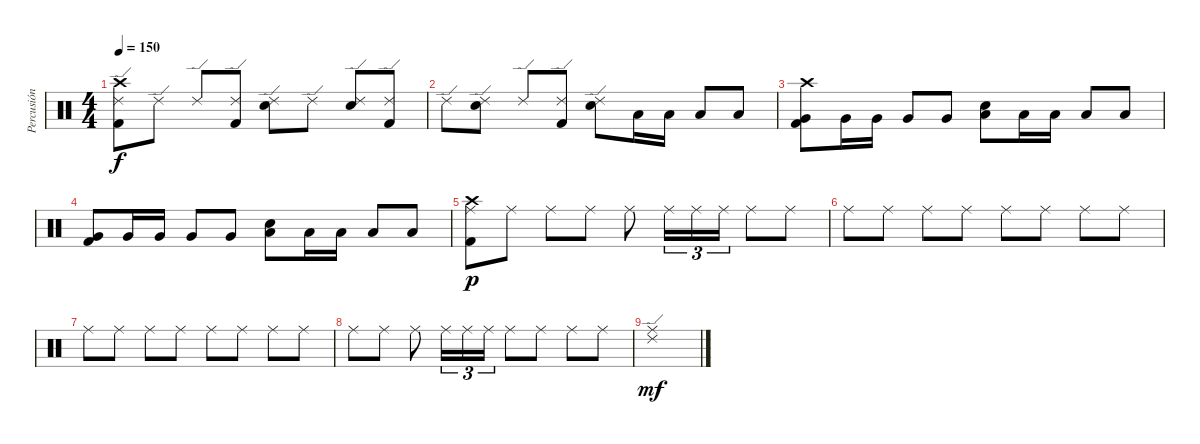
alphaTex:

\track ("Percusión" "Percusión") {instrument percussion}
\staff {score}
\articulation defaults
\ts (4 4)
\tempo 150
\clef neutral
\ks c
("Crash high (hit)" "Ride (edge) 2" "Kick (hit) 2").8{dy f} "Ride (edge) 2".8 "Ride (edge) 2".8 ("Ride (edge) 2" "Kick (hit) 2").8 ("Ride (edge) 2" "Snare (hit) 2").8 "Ride (edge) 2".8 ("Ride (edge) 2" "Snare (hit) 2").8 ("Ride (edge) 2" "Kick (hit) 2").8 |
"Ride (edge) 2".8 ("Ride (edge) 2" "Snare (hit) 2").8 "Ride (edge) 2".8 ("Ride (edge) 2" "Kick (hit) 2").8 ("Ride (edge) 2" "Snare (hit) 2").8 "Low Tom (hit)".16 "Low Tom (hit)".16 "Low Tom (hit)".8 "Low Tom (hit)".8 |
("Crash high (hit)" "Very Low Tom (hit)" "Kick (hit) 2").8 "Very Low Tom (hit)".16 "Very Low Tom (hit)".16 "Very Low Tom (hit)".8 "Very Low Tom (hit)".8 ("Low Floor Tom (hit)" "Snare (hit) 2").8 "Low Floor Tom (hit)".16 "Low Floor Tom (hit)".16 "Low Floor Tom (hit)".8 "Low Floor Tom (hit)".8 |
("Very Low Tom (hit)" "Kick (hit) 2").8 "Very Low Tom (hit)".16 "Very Low Tom (hit)".16 "Very Low Tom (hit)".8 "Very Low Tom (hit)".8 ("Low Floor Tom (hit)" "Snare (hit) 2").8 "Low Floor Tom (hit)".16 "Low Floor Tom (hit)".16 "Low Floor Tom (hit)".8 "Low Floor Tom (hit)".8 |
("Crash high (hit)" "Kick (hit) 2" "Ride (middle)").8{dy p} "Ride (middle)".8 "Ride (middle)".8 "Ride (middle)".8 "Ride (middle)".8 "Ride (middle)".16{tu (3 2)} "Ride (middle)".16{tu (3 2)} "Ride (middle)".16{tu (3 2)} "Ride (middle)".8 "Ride (middle)".8 |
"Ride (middle)".8 "Ride (middle)".8 "Ride (middle)".8 "Ride (middle)".8 "Ride (middle)".8 "Ride (middle)".8 "Ride (middle)".8 "Ride (middle)".8 |
"Ride (middle)".8 "Ride (middle)".8 "Ride (middle)".8 "Ride (middle)".8 "Ride (middle)".8 "Ride (middle)".8 "Ride (middle)".8 "Ride (middle)".8 |
"Ride (middle)".8 "Ride (middle)".8 "Ride (middle)".8 "Ride (middle)".16{tu (3 2)} "Ride (middle)".16{tu (3 2)} "Ride (middle)".16{tu (3 2)} "Ride (middle)".8 "Ride (middle)".8 "Ride (middle)".8 "Ride (middle)".8 |
("Ride (edge) 2" "Ride (middle)").1{dy mf}
